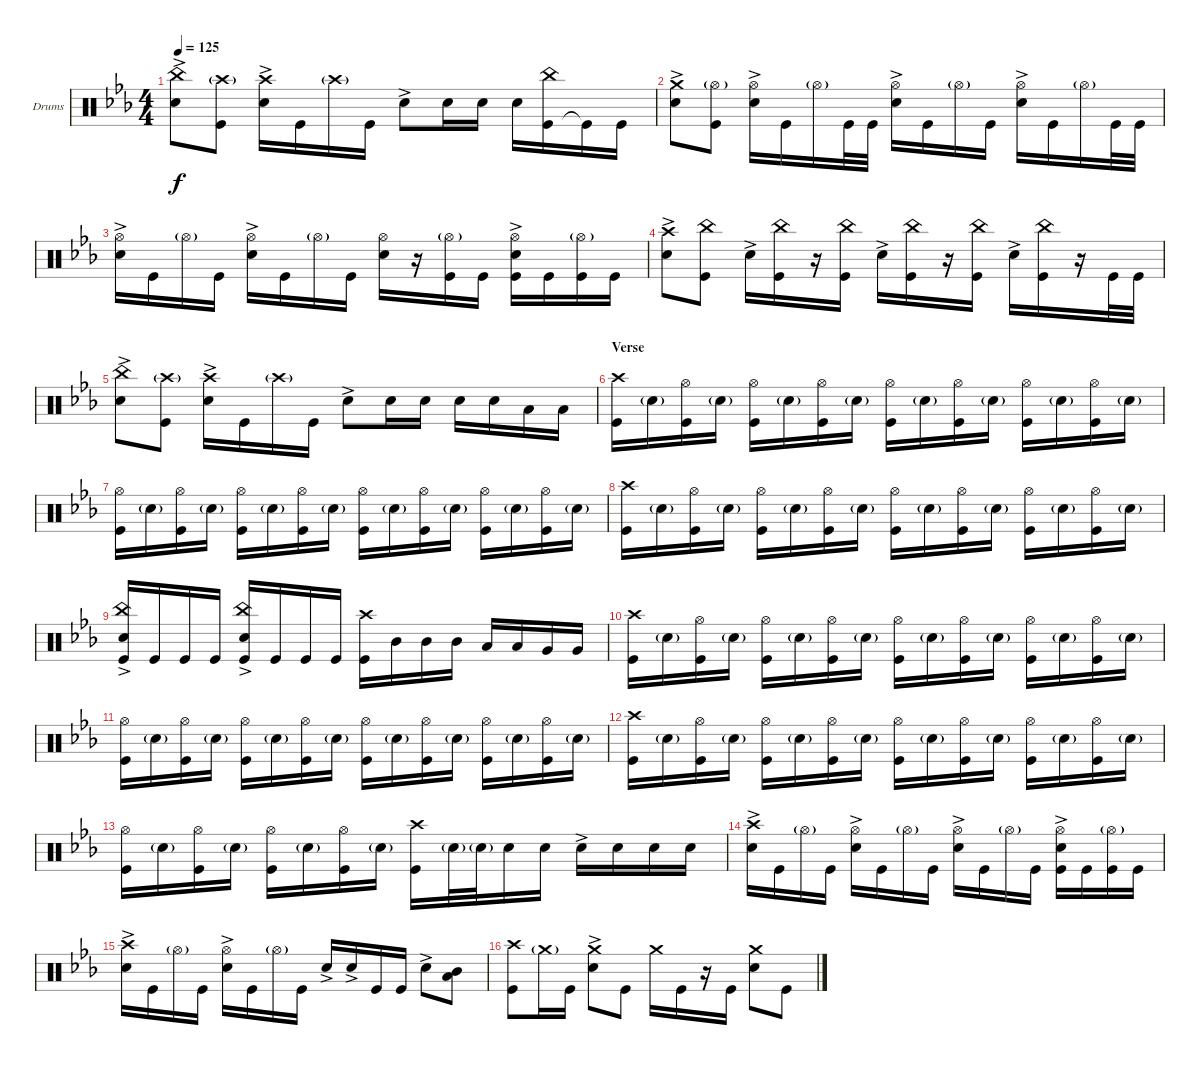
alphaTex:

\bracketExtendMode groupsimilarinstruments
\firstSystemTrackNameOrientation horizontal
\otherSystemsTrackNameOrientation horizontal
\track ("Drumkit" "Drums") {instrument percussion}
\staff {score}
\articulation defaults
\ts (4 4)
\tempo 125
\clef neutral
\ks cminor
("Snare (hit) 2"{ac} "China (hit)").8{dy f} ("Kick (hit)" "Crash high (hit)"{g}).8 ("Snare (hit) 2"{ac} "Crash high (hit)").16 "Kick (hit)".16 "Crash high (hit)"{g}.16 "Kick (hit)".16 "Snare (hit) 2"{ac}.8 "Snare (hit) 2".16 "Snare (hit) 2".16 "Snare (hit) 2".16 ("Kick (hit)" "China (hit)").16 "Kick (hit)"{t}.16 "Kick (hit)".16 |
("Snare (hit) 2"{ac} "Crash medium (hit)").8 ("Kick (hit)" "Hi-Hat (open)"{g}).8 ("Snare (hit) 2"{ac} "Hi-Hat (open)").16 "Kick (hit)".16 "Hi-Hat (open)"{g}.16 "Kick (hit)".32 "Kick (hit)".32 ("Snare (hit) 2"{ac} "Hi-Hat (open)").16 "Kick (hit)".16 "Hi-Hat (open)"{g}.16 "Kick (hit)".16 ("Snare (hit) 2"{ac} "Hi-Hat (open)").16 "Kick (hit)".16 "Hi-Hat (open)"{g}.16 "Kick (hit)".32 "Kick (hit)".32 |
("Snare (hit) 2"{ac} "Hi-Hat (open)").16 "Kick (hit)".16 "Hi-Hat (open)"{g}.16 "Kick (hit)".16 ("Snare (hit) 2"{ac} "Hi-Hat (open)").16 "Kick (hit)".16 "Hi-Hat (open)"{g}.16 "Kick (hit)".16 ("Snare (hit) 2" "Hi-Hat (open)").16 r.16 ("Kick (hit)" "Hi-Hat (open)"{g}).16 "Kick (hit)".16 ("Kick (hit)" "Snare (hit) 2"{ac} "Hi-Hat (open)").16 "Kick (hit)".16 ("Kick (hit)" "Hi-Hat (open)"{g}).16 "Kick (hit)".16 |
("Snare (hit) 2"{ac} "Crash high (hit)").8 ("Kick (hit)" "China (hit)").8 "Snare (hit) 2"{ac}.16 ("Kick (hit)" "China (hit)").16 r.16 ("Kick (hit)" "China (hit)").16 "Snare (hit) 2"{ac}.16 ("Kick (hit)" "China (hit)").16 r.16 ("Kick (hit)" "China (hit)").16 "Snare (hit) 2"{ac}.16 ("Kick (hit)" "China (hit)").16 r.16 "Kick (hit)".32 "Kick (hit)".32 |
("Snare (hit) 2"{ac} "China (hit)").8 ("Kick (hit)" "Crash high (hit)"{g}).8 ("Snare (hit) 2"{ac} "Crash high (hit)").16 "Kick (hit)".16 "Crash high (hit)"{g}.16 "Kick (hit)".16 "Snare (hit) 2"{ac}.8 "Snare (hit) 2".16 "Snare (hit) 2".16 "Snare (hit) 2".16 "Snare (hit) 2".16 "Low Tom (hit)".16 "Low Tom (hit)".16 |
\section ("" "Verse")
("Kick (hit)" "Crash high (hit)").16 "Snare (hit) 2"{g}.16 ("Kick (hit)" "Hi-Hat (open)").16 "Snare (hit) 2"{g}.16 ("Kick (hit)" "Hi-Hat (open)").16 "Snare (hit) 2"{g}.16 ("Kick (hit)" "Hi-Hat (open)").16 "Snare (hit) 2"{g}.16 ("Kick (hit)" "Hi-Hat (open)").16 "Snare (hit) 2"{g}.16 ("Kick (hit)" "Hi-Hat (open)").16 "Snare (hit) 2"{g}.16 ("Kick (hit)" "Hi-Hat (open)").16 "Snare (hit) 2"{g}.16 ("Kick (hit)" "Hi-Hat (open)").16 "Snare (hit) 2"{g}.16 |
("Kick (hit)" "Hi-Hat (open)").16 "Snare (hit) 2"{g}.16 ("Kick (hit)" "Hi-Hat (open)").16 "Snare (hit) 2"{g}.16 ("Kick (hit)" "Hi-Hat (open)").16 "Snare (hit) 2"{g}.16 ("Kick (hit)" "Hi-Hat (open)").16 "Snare (hit) 2"{g}.16 ("Kick (hit)" "Hi-Hat (open)").16 "Snare (hit) 2"{g}.16 ("Kick (hit)" "Hi-Hat (open)").16 "Snare (hit) 2"{g}.16 ("Kick (hit)" "Hi-Hat (open)").16 "Snare (hit) 2"{g}.16 ("Kick (hit)" "Hi-Hat (open)").16 "Snare (hit) 2"{g}.16 |
("Kick (hit)" "Crash high (hit)").16 "Snare (hit) 2"{g}.16 ("Kick (hit)" "Hi-Hat (open)").16 "Snare (hit) 2"{g}.16 ("Kick (hit)" "Hi-Hat (open)").16 "Snare (hit) 2"{g}.16 ("Kick (hit)" "Hi-Hat (open)").16 "Snare (hit) 2"{g}.16 ("Kick (hit)" "Hi-Hat (open)").16 "Snare (hit) 2"{g}.16 ("Kick (hit)" "Hi-Hat (open)").16 "Snare (hit) 2"{g}.16 ("Kick (hit)" "Hi-Hat (open)").16 "Snare (hit) 2"{g}.16 ("Kick (hit)" "Hi-Hat (open)").16 "Snare (hit) 2"{g}.16 |
("Kick (hit)" "Snare (hit) 2"{ac} "China (hit)").16 "Kick (hit)".16 "Kick (hit)".16 "Kick (hit)".16 ("Kick (hit)" "Snare (hit) 2"{ac} "China (hit)").16 "Kick (hit)".16 "Kick (hit)".16 "Kick (hit)".16 ("Kick (hit)" "Crash high (hit)").16 "Mid Tom (hit)".16 "Mid Tom (hit)".16 "Mid Tom (hit)".16 "Low Tom (hit)".16 "Low Tom (hit)".16 "Very Low Tom (hit)".16 "Very Low Tom (hit)".16 |
("Kick (hit)" "Crash high (hit)").16 "Snare (hit) 2"{g}.16 ("Kick (hit)" "Hi-Hat (open)").16 "Snare (hit) 2"{g}.16 ("Kick (hit)" "Hi-Hat (open)").16 "Snare (hit) 2"{g}.16 ("Kick (hit)" "Hi-Hat (open)").16 "Snare (hit) 2"{g}.16 ("Kick (hit)" "Hi-Hat (open)").16 "Snare (hit) 2"{g}.16 ("Kick (hit)" "Hi-Hat (open)").16 "Snare (hit) 2"{g}.16 ("Kick (hit)" "Hi-Hat (open)").16 "Snare (hit) 2"{g}.16 ("Kick (hit)" "Hi-Hat (open)").16 "Snare (hit) 2"{g}.16 |
("Kick (hit)" "Hi-Hat (open)").16 "Snare (hit) 2"{g}.16 ("Kick (hit)" "Hi-Hat (open)").16 "Snare (hit) 2"{g}.16 ("Kick (hit)" "Hi-Hat (open)").16 "Snare (hit) 2"{g}.16 ("Kick (hit)" "Hi-Hat (open)").16 "Snare (hit) 2"{g}.16 ("Kick (hit)" "Hi-Hat (open)").16 "Snare (hit) 2"{g}.16 ("Kick (hit)" "Hi-Hat (open)").16 "Snare (hit) 2"{g}.16 ("Kick (hit)" "Hi-Hat (open)").16 "Snare (hit) 2"{g}.16 ("Kick (hit)" "Hi-Hat (open)").16 "Snare (hit) 2"{g}.16 |
("Kick (hit)" "Crash high (hit)").16 "Snare (hit) 2"{g}.16 ("Kick (hit)" "Hi-Hat (open)").16 "Snare (hit) 2"{g}.16 ("Kick (hit)" "Hi-Hat (open)").16 "Snare (hit) 2"{g}.16 ("Kick (hit)" "Hi-Hat (open)").16 "Snare (hit) 2"{g}.16 ("Kick (hit)" "Hi-Hat (open)").16 "Snare (hit) 2"{g}.16 ("Kick (hit)" "Hi-Hat (open)").16 "Snare (hit) 2"{g}.16 ("Kick (hit)" "Hi-Hat (open)").16 "Snare (hit) 2"{g}.16 ("Kick (hit)" "Hi-Hat (open)").16 "Snare (hit) 2"{g}.16 |
("Kick (hit)" "Hi-Hat (open)").16 "Snare (hit) 2"{g}.16 ("Kick (hit)" "Hi-Hat (open)").16 "Snare (hit) 2"{g}.16 ("Kick (hit)" "Hi-Hat (open)").16 "Snare (hit) 2"{g}.16 ("Kick (hit)" "Hi-Hat (open)").16 "Snare (hit) 2"{g}.16 ("Kick (hit)" "Crash high (hit)").16 "Snare (hit) 2"{g}.32 "Snare (hit) 2"{g}.32 "Snare (hit) 2".16 "Snare (hit) 2".16 "Snare (hit) 2"{ac}.16 "Snare (hit) 2".16 "Snare (hit) 2".16 "Snare (hit) 2".16 |
("Snare (hit) 2"{ac} "Crash high (hit)").16 "Kick (hit)".16 "Hi-Hat (open)"{g}.16 "Kick (hit)".16 ("Snare (hit) 2"{ac} "Hi-Hat (open)").16 "Kick (hit)".16 "Hi-Hat (open)"{g}.16 "Kick (hit)".16 ("Snare (hit) 2"{ac} "Hi-Hat (open)").16 "Kick (hit)".16 "Hi-Hat (open)"{g}.16 "Kick (hit)".16 ("Snare (hit) 2"{ac} "Hi-Hat (open)" "Kick (hit)").16 "Kick (hit)".16 ("Hi-Hat (open)"{g} "Kick (hit)").16 "Kick (hit)".16 |
("Snare (hit) 2"{ac} "Crash high (hit)").16 "Kick (hit)".16 "Hi-Hat (open)"{g}.16 "Kick (hit)".16 ("Snare (hit) 2"{ac} "Hi-Hat (open)").16 "Kick (hit)".16 "Hi-Hat (open)"{g}.16 "Kick (hit)".16 "Snare (hit) 2"{ac}.16 "Snare (hit) 2"{ac}.16 "Kick (hit)".16 "Kick (hit)".16 "Snare (hit) 2"{ac}.8 ("Low Tom (hit)" "Mid Tom (hit)").8 |
("Kick (hit)" "Crash high (hit)").8 "Crash medium (hit)"{g}.16 "Kick (hit)".16 ("Snare (hit) 2"{ac} "Crash medium (hit)").8 "Kick (hit)".8 "Crash medium (hit)".16 "Kick (hit)".16 r.16 "Kick (hit)".16 ("Snare (hit) 2" "Crash medium (hit)").8 "Kick (hit)".8
